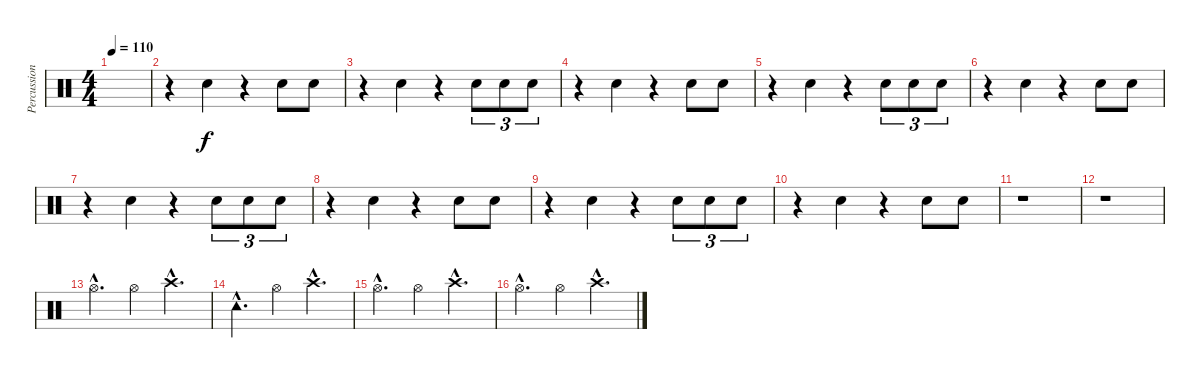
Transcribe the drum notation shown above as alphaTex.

\track ("Percussion 2" "Percussion") {instrument percussion}
\staff {score}
\articulation defaults
\ts (4 4)
\tempo 110
\clef neutral
\ks c
|
r.4 "Electric Snare (hit)".4 r.4 "Electric Snare (hit)".8 "Electric Snare (hit)".8 |
r.4 "Electric Snare (hit)".4 r.4 "Electric Snare (hit)".8{tu (3 2)} "Electric Snare (hit)".8{tu (3 2)} "Electric Snare (hit)".8{tu (3 2)} |
r.4 "Electric Snare (hit)".4 r.4 "Electric Snare (hit)".8 "Electric Snare (hit)".8 |
r.4 "Electric Snare (hit)".4 r.4 "Electric Snare (hit)".8{tu (3 2)} "Electric Snare (hit)".8{tu (3 2)} "Electric Snare (hit)".8{tu (3 2)} |
r.4 "Electric Snare (hit)".4 r.4 "Electric Snare (hit)".8 "Electric Snare (hit)".8 |
r.4 "Electric Snare (hit)".4 r.4 "Electric Snare (hit)".8{tu (3 2)} "Electric Snare (hit)".8{tu (3 2)} "Electric Snare (hit)".8{tu (3 2)} |
r.4 "Electric Snare (hit)".4 r.4 "Electric Snare (hit)".8 "Electric Snare (hit)".8 |
r.4 "Electric Snare (hit)".4 r.4 "Electric Snare (hit)".8{tu (3 2)} "Electric Snare (hit)".8{tu (3 2)} "Electric Snare (hit)".8{tu (3 2)} |
r.4 "Electric Snare (hit)".4 r.4 "Electric Snare (hit)".8 "Electric Snare (hit)".8 |
r.1 |
r.1 |
"Hi-Hat (open)"{hac}.4{d} "Hi-Hat (open)".4 "Crash high (hit)"{hac}.4{d} |
"Tambourine (hit)"{hac}.4{d} "Hi-Hat (open)".4 "Crash high (hit)"{hac}.4{d} |
"Hi-Hat (open)"{hac}.4{d} "Hi-Hat (open)".4 "Crash high (hit)"{hac}.4{d} |
"Hi-Hat (open)"{hac}.4{d} "Hi-Hat (open)".4 "Crash high (hit)"{hac}.4{d}
